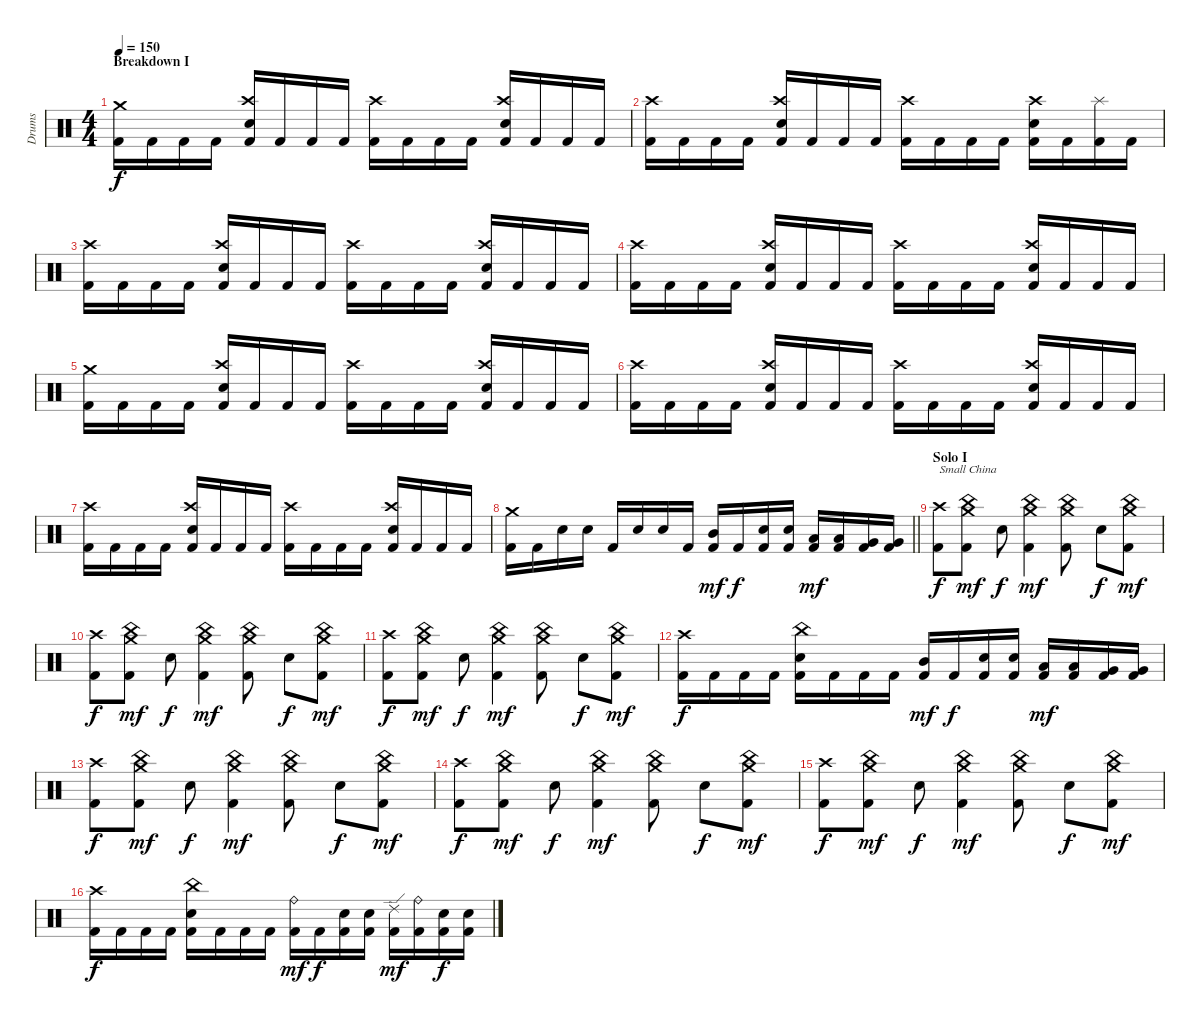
\track ("Drums" "Drums") {instrument percussion}
\staff {score}
\articulation defaults
\ts (4 4)
\section ("" "Breakdown I")
\tempo 150
\clef neutral
\ks c
("Crash medium (hit)" "Kick (hit) 2").16{dy f} "Kick (hit) 2".16 "Kick (hit) 2".16 "Kick (hit) 2".16 ("Crash high (hit)" "Electric Snare (hit)" "Kick (hit) 2").16 "Kick (hit) 2".16 "Kick (hit) 2".16 "Kick (hit) 2".16 ("Crash high (hit)" "Kick (hit) 2").16 "Kick (hit) 2".16 "Kick (hit) 2".16 "Kick (hit) 2".16 ("Crash high (hit)" "Electric Snare (hit)" "Kick (hit) 2").16 "Kick (hit) 2".16 "Kick (hit) 2".16 "Kick (hit) 2".16 |
("Crash high (hit)" "Kick (hit) 2").16 "Kick (hit) 2".16 "Kick (hit) 2".16 "Kick (hit) 2".16 ("Crash high (hit)" "Electric Snare (hit)" "Kick (hit) 2").16 "Kick (hit) 2".16 "Kick (hit) 2".16 "Kick (hit) 2".16 ("Crash high (hit)" "Kick (hit) 2").16 "Kick (hit) 2".16 "Kick (hit) 2".16 "Kick (hit) 2".16 ("Crash high (hit)" "Electric Snare (hit)" "Kick (hit) 2").16 "Kick (hit) 2".16 ("Splash (hit)" "Kick (hit) 2").16 "Kick (hit) 2".16 |
("Crash high (hit)" "Kick (hit) 2").16 "Kick (hit) 2".16 "Kick (hit) 2".16 "Kick (hit) 2".16 ("Crash high (hit)" "Electric Snare (hit)" "Kick (hit) 2").16 "Kick (hit) 2".16 "Kick (hit) 2".16 "Kick (hit) 2".16 ("Crash high (hit)" "Kick (hit) 2").16 "Kick (hit) 2".16 "Kick (hit) 2".16 "Kick (hit) 2".16 ("Crash high (hit)" "Electric Snare (hit)" "Kick (hit) 2").16 "Kick (hit) 2".16 "Kick (hit) 2".16 "Kick (hit) 2".16 |
("Crash high (hit)" "Kick (hit) 2").16 "Kick (hit) 2".16 "Kick (hit) 2".16 "Kick (hit) 2".16 ("Crash high (hit)" "Electric Snare (hit)" "Kick (hit) 2").16 "Kick (hit) 2".16 "Kick (hit) 2".16 "Kick (hit) 2".16 ("Crash high (hit)" "Kick (hit) 2").16 "Kick (hit) 2".16 "Kick (hit) 2".16 "Kick (hit) 2".16 ("Crash high (hit)" "Electric Snare (hit)" "Kick (hit) 2").16 "Kick (hit) 2".16 "Kick (hit) 2".16 "Kick (hit) 2".16 |
("Crash medium (hit)" "Kick (hit) 2").16 "Kick (hit) 2".16 "Kick (hit) 2".16 "Kick (hit) 2".16 ("Crash high (hit)" "Electric Snare (hit)" "Kick (hit) 2").16 "Kick (hit) 2".16 "Kick (hit) 2".16 "Kick (hit) 2".16 ("Crash high (hit)" "Kick (hit) 2").16 "Kick (hit) 2".16 "Kick (hit) 2".16 "Kick (hit) 2".16 ("Crash high (hit)" "Electric Snare (hit)" "Kick (hit) 2").16 "Kick (hit) 2".16 "Kick (hit) 2".16 "Kick (hit) 2".16 |
("Crash high (hit)" "Kick (hit) 2").16 "Kick (hit) 2".16 "Kick (hit) 2".16 "Kick (hit) 2".16 ("Crash high (hit)" "Electric Snare (hit)" "Kick (hit) 2").16 "Kick (hit) 2".16 "Kick (hit) 2".16 "Kick (hit) 2".16 ("Crash high (hit)" "Kick (hit) 2").16 "Kick (hit) 2".16 "Kick (hit) 2".16 "Kick (hit) 2".16 ("Crash high (hit)" "Electric Snare (hit)" "Kick (hit) 2").16 "Kick (hit) 2".16 "Kick (hit) 2".16 "Kick (hit) 2".16 |
("Crash high (hit)" "Kick (hit) 2").16 "Kick (hit) 2".16 "Kick (hit) 2".16 "Kick (hit) 2".16 ("Crash high (hit)" "Electric Snare (hit)" "Kick (hit) 2").16 "Kick (hit) 2".16 "Kick (hit) 2".16 "Kick (hit) 2".16 ("Crash high (hit)" "Kick (hit) 2").16 "Kick (hit) 2".16 "Kick (hit) 2".16 "Kick (hit) 2".16 ("Crash high (hit)" "Electric Snare (hit)" "Kick (hit) 2").16 "Kick (hit) 2".16 "Kick (hit) 2".16 "Kick (hit) 2".16 |
\barLineRight lightlight
("Crash medium (hit)" "Kick (hit) 2").16 "Kick (hit) 2".16 "Electric Snare (hit)".16 "Electric Snare (hit)".16 "Kick (hit) 2".16 "Electric Snare (hit)".16 "Electric Snare (hit)".16 "Kick (hit) 2".16 ("Mid Tom (hit)" "Kick (hit) 2").16{dy mf} "Kick (hit) 2".16{dy f} ("Electric Snare (hit)" "Kick (hit) 2").16 ("Electric Snare (hit)" "Kick (hit) 2").16 ("Low Tom (hit)" "Kick (hit) 2").16{dy mf} ("Low Tom (hit)" "Kick (hit) 2").16 ("Very Low Tom (hit)" "Kick (hit) 2").16 ("Very Low Tom (hit)" "Kick (hit) 2").16 |
\section ("" "Solo I")
("Crash high (hit)" "Kick (hit) 2").8{txt "Small China" dy f} ("China (hit)" "Crash medium (hit)" "Kick (hit) 2").8{dy mf} "Electric Snare (hit)".8{dy f} ("China (hit)" "Crash medium (hit)" "Kick (hit) 2").4{dy mf} ("China (hit)" "Crash medium (hit)" "Kick (hit) 2").8 "Electric Snare (hit)".8{dy f} ("China (hit)" "Crash medium (hit)" "Kick (hit) 2").8{dy mf} |
("Crash high (hit)" "Kick (hit) 2").8{dy f} ("China (hit)" "Crash medium (hit)" "Kick (hit) 2").8{dy mf} "Electric Snare (hit)".8{dy f} ("China (hit)" "Crash medium (hit)" "Kick (hit) 2").4{dy mf} ("China (hit)" "Crash medium (hit)" "Kick (hit) 2").8 "Electric Snare (hit)".8{dy f} ("China (hit)" "Crash medium (hit)" "Kick (hit) 2").8{dy mf} |
("Crash high (hit)" "Kick (hit) 2").8{dy f} ("China (hit)" "Crash medium (hit)" "Kick (hit) 2").8{dy mf} "Electric Snare (hit)".8{dy f} ("China (hit)" "Crash medium (hit)" "Kick (hit) 2").4{dy mf} ("China (hit)" "Crash medium (hit)" "Kick (hit) 2").8 "Electric Snare (hit)".8{dy f} ("China (hit)" "Crash medium (hit)" "Kick (hit) 2").8{dy mf} |
("Crash high (hit)" "Kick (hit) 2").16{dy f} "Kick (hit) 2".16 "Kick (hit) 2".16 "Kick (hit) 2".16 ("China (hit)" "Electric Snare (hit)" "Kick (hit) 2").16 "Kick (hit) 2".16 "Kick (hit) 2".16 "Kick (hit) 2".16 ("Mid Tom (hit)" "Kick (hit) 2").16{dy mf} "Kick (hit) 2".16{dy f} ("Electric Snare (hit)" "Kick (hit) 2").16 ("Electric Snare (hit)" "Kick (hit) 2").16 ("Low Tom (hit)" "Kick (hit) 2").16{dy mf} ("Low Tom (hit)" "Kick (hit) 2").16 ("Very Low Tom (hit)" "Kick (hit) 2").16 ("Very Low Tom (hit)" "Kick (hit) 2").16 |
("Crash high (hit)" "Kick (hit) 2").8{dy f} ("China (hit)" "Crash medium (hit)" "Kick (hit) 2").8{dy mf} "Electric Snare (hit)".8{dy f} ("China (hit)" "Crash medium (hit)" "Kick (hit) 2").4{dy mf} ("China (hit)" "Crash medium (hit)" "Kick (hit) 2").8 "Electric Snare (hit)".8{dy f} ("China (hit)" "Crash medium (hit)" "Kick (hit) 2").8{dy mf} |
("Crash high (hit)" "Kick (hit) 2").8{dy f} ("China (hit)" "Crash medium (hit)" "Kick (hit) 2").8{dy mf} "Electric Snare (hit)".8{dy f} ("China (hit)" "Crash medium (hit)" "Kick (hit) 2").4{dy mf} ("China (hit)" "Crash medium (hit)" "Kick (hit) 2").8 "Electric Snare (hit)".8{dy f} ("China (hit)" "Crash medium (hit)" "Kick (hit) 2").8{dy mf} |
("Crash high (hit)" "Kick (hit) 2").8{dy f} ("China (hit)" "Crash medium (hit)" "Kick (hit) 2").8{dy mf} "Electric Snare (hit)".8{dy f} ("China (hit)" "Crash medium (hit)" "Kick (hit) 2").4{dy mf} ("China (hit)" "Crash medium (hit)" "Kick (hit) 2").8 "Electric Snare (hit)".8{dy f} ("China (hit)" "Crash medium (hit)" "Kick (hit) 2").8{dy mf} |
("Crash high (hit)" "Kick (hit) 2").16{dy f} "Kick (hit) 2".16 "Kick (hit) 2".16 "Kick (hit) 2".16 ("China (hit)" "Electric Snare (hit)" "Kick (hit) 2").16 "Kick (hit) 2".16 "Kick (hit) 2".16 "Kick (hit) 2".16 ("Ride (bell)" "Kick (hit) 2").16{dy mf} "Kick (hit) 2".16{dy f} ("Electric Snare (hit)" "Kick (hit) 2").16 ("Electric Snare (hit)" "Kick (hit) 2").16 ("Ride (edge) 2" "Kick (hit) 2").16{dy mf} ("Ride (bell)" "Kick (hit) 2").16 ("Electric Snare (hit)" "Kick (hit) 2").16{dy f} ("Electric Snare (hit)" "Kick (hit) 2").16
